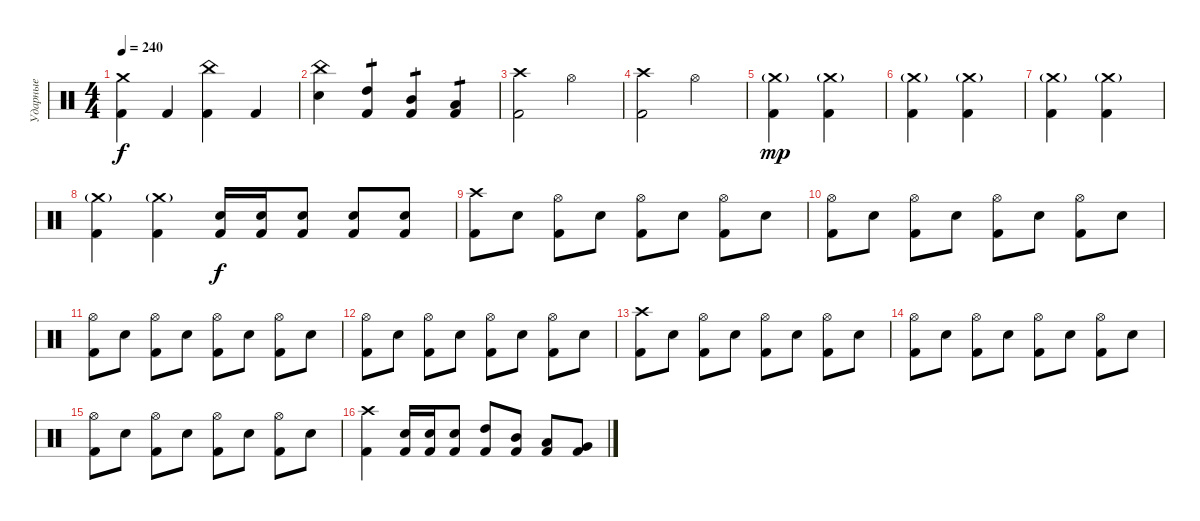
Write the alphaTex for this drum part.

\track ("Ударные" "Ударные") {instrument percussion}
\staff {score}
\articulation defaults
\ts (4 4)
\tempo 240
\clef neutral
\ks c
("Crash medium (hit)" "Kick (hit) 2").4{dy f} "Kick (hit) 2".4 ("China (hit)" "Kick (hit) 2").4 "Kick (hit) 2".4 |
("China (hit)" "Electric Snare (hit)").4 ("High Tom (hit)" "Kick (hit) 2").4{tp 1} ("Mid Tom (hit)" "Kick (hit) 2").4{tp 1} ("Low Tom (hit)" "Kick (hit) 2").4{tp 1} |
("Crash high (hit)" "Kick (hit) 2").2 "Hi-Hat (open)".2 |
("Crash high (hit)" "Kick (hit) 2").2 "Hi-Hat (open)".2 |
("Crash medium (hit)"{g} "Kick (hit) 2").4{dy mp} ("Crash medium (hit)"{g} "Kick (hit) 2").4 |
("Crash medium (hit)"{g} "Kick (hit) 2").4 ("Crash medium (hit)"{g} "Kick (hit) 2").4 |
("Crash medium (hit)"{g} "Kick (hit) 2").4 ("Crash medium (hit)"{g} "Kick (hit) 2").4 |
("Crash medium (hit)"{g} "Kick (hit) 2").4 ("Crash medium (hit)"{g} "Kick (hit) 2").4 ("Kick (hit) 2" "Electric Snare (hit)").16{dy f} ("Kick (hit) 2" "Electric Snare (hit)").16 ("Kick (hit) 2" "Electric Snare (hit)").8 ("Kick (hit) 2" "Electric Snare (hit)").8 ("Kick (hit) 2" "Electric Snare (hit)").8 |
("Crash high (hit)" "Kick (hit) 2").8 "Electric Snare (hit)".8 ("Hi-Hat (open)" "Kick (hit) 2").8 "Electric Snare (hit)".8 ("Hi-Hat (open)" "Kick (hit) 2").8 "Electric Snare (hit)".8 ("Hi-Hat (open)" "Kick (hit) 2").8 "Electric Snare (hit)".8 |
("Hi-Hat (open)" "Kick (hit) 2").8 "Electric Snare (hit)".8 ("Hi-Hat (open)" "Kick (hit) 2").8 "Electric Snare (hit)".8 ("Hi-Hat (open)" "Kick (hit) 2").8 "Electric Snare (hit)".8 ("Hi-Hat (open)" "Kick (hit) 2").8 "Electric Snare (hit)".8 |
("Hi-Hat (open)" "Kick (hit) 2").8 "Electric Snare (hit)".8 ("Hi-Hat (open)" "Kick (hit) 2").8 "Electric Snare (hit)".8 ("Hi-Hat (open)" "Kick (hit) 2").8 "Electric Snare (hit)".8 ("Hi-Hat (open)" "Kick (hit) 2").8 "Electric Snare (hit)".8 |
("Hi-Hat (open)" "Kick (hit) 2").8 "Electric Snare (hit)".8 ("Hi-Hat (open)" "Kick (hit) 2").8 "Electric Snare (hit)".8 ("Hi-Hat (open)" "Kick (hit) 2").8 "Electric Snare (hit)".8 ("Hi-Hat (open)" "Kick (hit) 2").8 "Electric Snare (hit)".8 |
("Crash high (hit)" "Kick (hit) 2").8 "Electric Snare (hit)".8 ("Hi-Hat (open)" "Kick (hit) 2").8 "Electric Snare (hit)".8 ("Hi-Hat (open)" "Kick (hit) 2").8 "Electric Snare (hit)".8 ("Hi-Hat (open)" "Kick (hit) 2").8 "Electric Snare (hit)".8 |
("Hi-Hat (open)" "Kick (hit) 2").8 "Electric Snare (hit)".8 ("Hi-Hat (open)" "Kick (hit) 2").8 "Electric Snare (hit)".8 ("Hi-Hat (open)" "Kick (hit) 2").8 "Electric Snare (hit)".8 ("Hi-Hat (open)" "Kick (hit) 2").8 "Electric Snare (hit)".8 |
("Hi-Hat (open)" "Kick (hit) 2").8 "Electric Snare (hit)".8 ("Hi-Hat (open)" "Kick (hit) 2").8 "Electric Snare (hit)".8 ("Hi-Hat (open)" "Kick (hit) 2").8 "Electric Snare (hit)".8 ("Hi-Hat (open)" "Kick (hit) 2").8 "Electric Snare (hit)".8 |
("Crash high (hit)" "Kick (hit) 2").4 ("Electric Snare (hit)" "Kick (hit) 2").16 ("Electric Snare (hit)" "Kick (hit) 2").16 ("Electric Snare (hit)" "Kick (hit) 2").8 ("High Tom (hit)" "Kick (hit) 2").8 ("Mid Tom (hit)" "Kick (hit) 2").8 ("Low Tom (hit)" "Kick (hit) 2").8 ("Very Low Tom (hit)" "Kick (hit) 2").8
